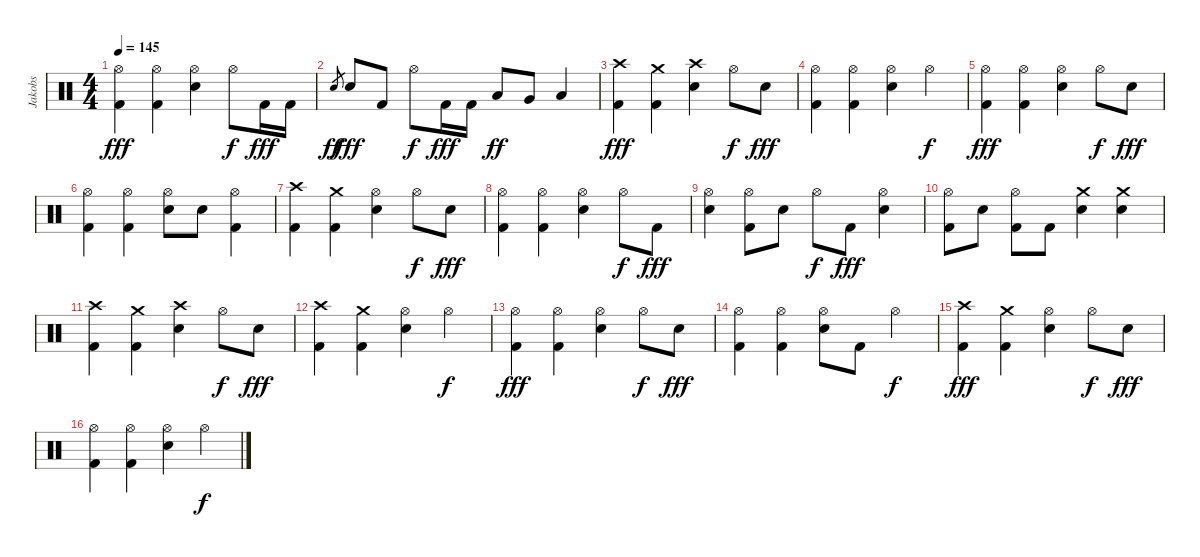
\track ("Jakobs" "Jakobs") {instrument percussion}
\staff {score}
\articulation defaults
\ts (4 4)
\tempo 145
\clef neutral
\ks c
("Hi-Hat (open)" "Kick (hit) 2").4{dy fff} ("Hi-Hat (open)" "Kick (hit) 2").4 ("Hi-Hat (open)" "Snare (hit) 2").4 "Hi-Hat (open)".8{dy f} "Kick (hit) 2".16{dy fff} "Kick (hit) 2".16 |
"Snare (hit) 2".8{gr dy ff} "Snare (hit) 2".8{dy fff} "Kick (hit) 2".8 "Hi-Hat (open)".8{dy f} "Kick (hit) 2".16{dy fff} "Kick (hit) 2".16 "Low Tom (hit)".8{dy ff} "Very Low Tom (hit)".8 "Low Floor Tom (hit)".4 |
("Crash high (hit)" "Kick (hit) 2").4{dy fff} ("Crash medium (hit)" "Kick (hit) 2").4 ("Crash high (hit)" "Snare (hit) 2").4 "Hi-Hat (open)".8{dy f} "Snare (hit) 2".8{dy fff} |
("Hi-Hat (open)" "Kick (hit) 2").4 ("Hi-Hat (open)" "Kick (hit) 2").4 ("Hi-Hat (open)" "Snare (hit) 2").4 "Hi-Hat (open)".4{dy f} |
("Hi-Hat (open)" "Kick (hit) 2").4{dy fff} ("Hi-Hat (open)" "Kick (hit) 2").4 ("Hi-Hat (open)" "Snare (hit) 2").4 "Hi-Hat (open)".8{dy f} "Snare (hit) 2".8{dy fff} |
("Hi-Hat (open)" "Kick (hit) 2").4 ("Hi-Hat (open)" "Kick (hit) 2").4 ("Hi-Hat (open)" "Snare (hit) 2").8 "Snare (hit) 2".8 ("Hi-Hat (open)" "Kick (hit) 2").4 |
("Crash high (hit)" "Kick (hit) 2").4 ("Crash medium (hit)" "Kick (hit) 2").4 ("Hi-Hat (open)" "Snare (hit) 2").4 "Hi-Hat (open)".8{dy f} "Snare (hit) 2".8{dy fff} |
("Hi-Hat (open)" "Kick (hit) 2").4 ("Hi-Hat (open)" "Kick (hit) 2").4 ("Hi-Hat (open)" "Snare (hit) 2").4 "Hi-Hat (open)".8{dy f} "Kick (hit) 2".8{dy fff} |
("Hi-Hat (open)" "Snare (hit) 2").4 ("Hi-Hat (open)" "Kick (hit) 2").8 "Snare (hit) 2".8 "Hi-Hat (open)".8{dy f} "Kick (hit) 2".8{dy fff} ("Hi-Hat (open)" "Snare (hit) 2").4 |
("Hi-Hat (open)" "Kick (hit) 2").8 "Snare (hit) 2".8 ("Hi-Hat (open)" "Kick (hit) 2").8 "Kick (hit) 2".8 ("Crash medium (hit)" "Snare (hit) 2").4 ("Crash medium (hit)" "Snare (hit) 2").4 |
("Crash high (hit)" "Kick (hit) 2").4 ("Crash medium (hit)" "Kick (hit) 2").4 ("Crash high (hit)" "Snare (hit) 2").4 "Hi-Hat (open)".8{dy f} "Snare (hit) 2".8{dy fff} |
("Crash high (hit)" "Kick (hit) 2").4 ("Crash medium (hit)" "Kick (hit) 2").4 ("Hi-Hat (open)" "Snare (hit) 2").4 "Hi-Hat (open)".4{dy f} |
("Hi-Hat (open)" "Kick (hit) 2").4{dy fff} ("Hi-Hat (open)" "Kick (hit) 2").4 ("Hi-Hat (open)" "Snare (hit) 2").4 "Hi-Hat (open)".8{dy f} "Snare (hit) 2".8{dy fff} |
("Hi-Hat (open)" "Kick (hit) 2").4 ("Hi-Hat (open)" "Kick (hit) 2").4 ("Hi-Hat (open)" "Snare (hit) 2").8 "Kick (hit) 2".8 "Hi-Hat (open)".4{dy f} |
("Crash high (hit)" "Kick (hit) 2").4{dy fff} ("Crash medium (hit)" "Kick (hit) 2").4 ("Hi-Hat (open)" "Snare (hit) 2").4 "Hi-Hat (open)".8{dy f} "Snare (hit) 2".8{dy fff} |
("Hi-Hat (open)" "Kick (hit) 2").4 ("Hi-Hat (open)" "Kick (hit) 2").4 ("Hi-Hat (open)" "Snare (hit) 2").4 "Hi-Hat (open)".4{dy f}
